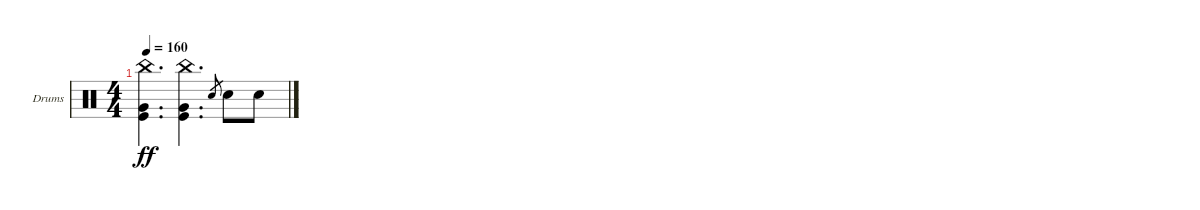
\defaultSystemsLayout 4
\bracketExtendMode groupsimilarinstruments
\firstSystemTrackNameOrientation horizontal
\otherSystemsTrackNameOrientation horizontal
\track ("Drumkit" "Drums") {instrument percussion}
\staff {score}
\articulation defaults
\ts (4 4)
\tempo 160
\clef neutral
\ks c
("China (hit)" "Kick (hit)" "Very Low Tom (hit)").4{d dy ff} ("Kick (hit)" "Very Low Tom (hit)" "China (hit)").4{d} "Snare (hit) 2".8{gr} "Snare (hit) 2".8 "Snare (hit) 2".8
